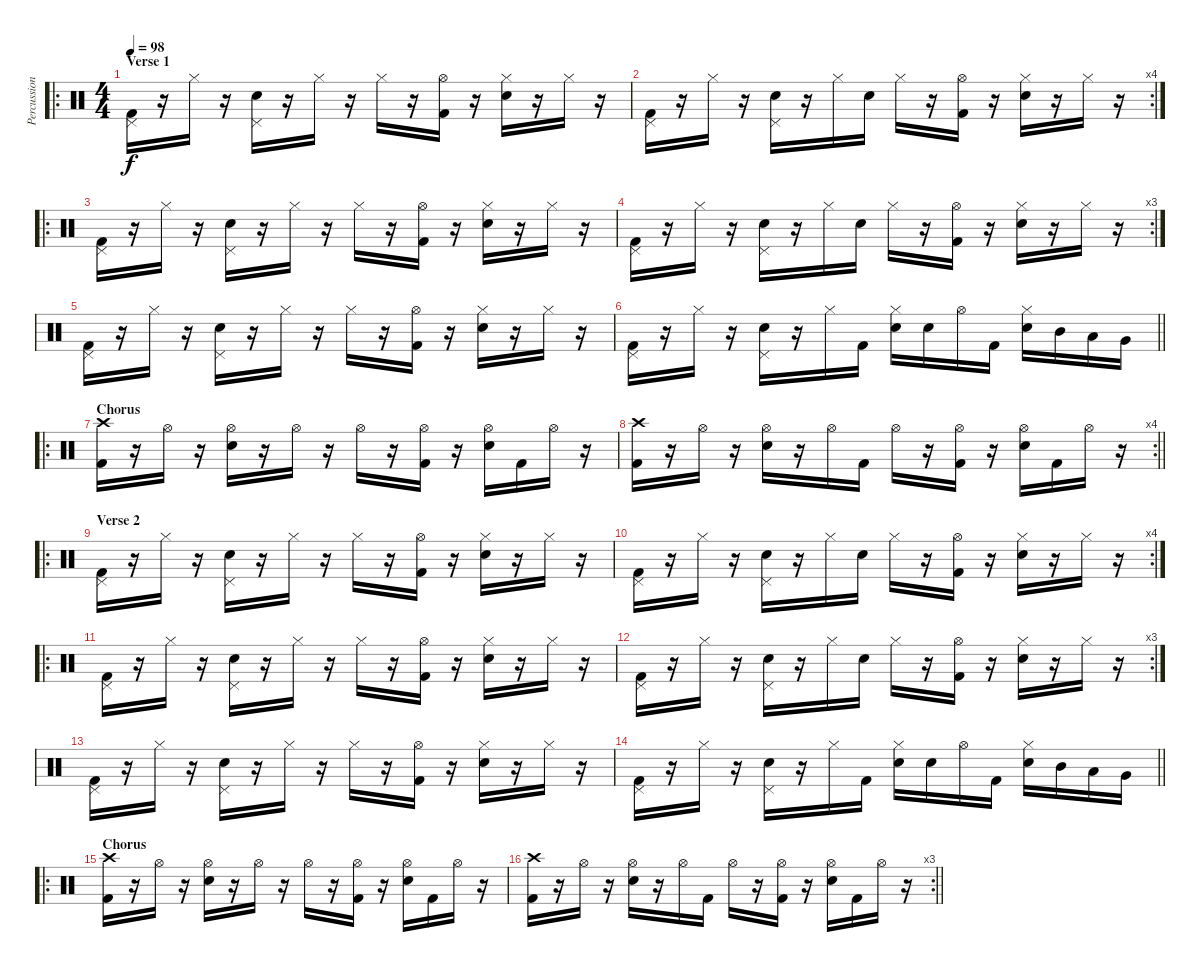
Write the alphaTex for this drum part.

\track ("Percussion" "Percussion") {instrument percussion}
\staff {score}
\articulation defaults
\ro
\ts (4 4)
\section ("" "Verse 1")
\tempo 98
\clef neutral
\ks c
("Pedal Hi-Hat (hit)" "Kick (hit) 2").16{dy f} r.16 "Hi-Hat (closed)".16 r.16 ("Pedal Hi-Hat (hit)" "Snare (hit) 2").16 r.16 "Hi-Hat (closed)".16 r.16 "Hi-Hat (closed)".16 r.16 ("Hi-Hat (open)" "Kick (hit) 2").16 r.16 ("Hi-Hat (closed)" "Snare (hit) 2").16 r.16 "Hi-Hat (closed)".16 r.16 |
\rc 4
("Pedal Hi-Hat (hit)" "Kick (hit) 2").16 r.16 "Hi-Hat (closed)".16 r.16 ("Pedal Hi-Hat (hit)" "Snare (hit) 2").16 r.16 "Hi-Hat (closed)".16 "Snare (hit) 2".16 "Hi-Hat (closed)".16 r.16 ("Hi-Hat (open)" "Kick (hit) 2").16 r.16 ("Hi-Hat (closed)" "Snare (hit) 2").16 r.16 "Hi-Hat (closed)".16 r.16 |
\ro
("Pedal Hi-Hat (hit)" "Kick (hit) 2").16 r.16 "Hi-Hat (closed)".16 r.16 ("Pedal Hi-Hat (hit)" "Snare (hit) 2").16 r.16 "Hi-Hat (closed)".16 r.16 "Hi-Hat (closed)".16 r.16 ("Hi-Hat (open)" "Kick (hit) 2").16 r.16 ("Hi-Hat (closed)" "Snare (hit) 2").16 r.16 "Hi-Hat (closed)".16 r.16 |
\rc 3
("Pedal Hi-Hat (hit)" "Kick (hit) 2").16 r.16 "Hi-Hat (closed)".16 r.16 ("Pedal Hi-Hat (hit)" "Snare (hit) 2").16 r.16 "Hi-Hat (closed)".16 "Snare (hit) 2".16 "Hi-Hat (closed)".16 r.16 ("Hi-Hat (open)" "Kick (hit) 2").16 r.16 ("Hi-Hat (closed)" "Snare (hit) 2").16 r.16 "Hi-Hat (closed)".16 r.16 |
("Pedal Hi-Hat (hit)" "Kick (hit) 2").16 r.16 "Hi-Hat (closed)".16 r.16 ("Pedal Hi-Hat (hit)" "Snare (hit) 2").16 r.16 "Hi-Hat (closed)".16 r.16 "Hi-Hat (closed)".16 r.16 ("Hi-Hat (open)" "Kick (hit) 2").16 r.16 ("Hi-Hat (closed)" "Snare (hit) 2").16 r.16 "Hi-Hat (closed)".16 r.16 |
\barLineRight lightlight
("Pedal Hi-Hat (hit)" "Kick (hit) 2").16 r.16 "Hi-Hat (closed)".16 r.16 ("Pedal Hi-Hat (hit)" "Snare (hit) 2").16 r.16 "Hi-Hat (closed)".16 "Kick (hit) 2".16 ("Hi-Hat (closed)" "Snare (hit) 2").16 "Snare (hit) 2".16 "Hi-Hat (open)".16 "Kick (hit) 2".16 ("Hi-Hat (closed)" "Snare (hit) 2").16 "Mid Tom (hit)".16 "Low Tom (hit)".16 "Very Low Tom (hit)".16 |
\ro
\section ("" "Chorus")
("Crash high (hit)" "Kick (hit) 2").16 r.16 "Hi-Hat (open)".16 r.16 ("Hi-Hat (open)" "Snare (hit) 2").16 r.16 "Hi-Hat (open)".16 r.16 "Hi-Hat (open)".16 r.16 ("Hi-Hat (open)" "Kick (hit) 2").16 r.16 ("Hi-Hat (open)" "Snare (hit) 2").16 "Kick (hit) 2".16 "Hi-Hat (open)".16 r.16 |
\rc 4
\barLineRight lightlight
("Crash high (hit)" "Kick (hit) 2").16 r.16 "Hi-Hat (open)".16 r.16 ("Hi-Hat (open)" "Snare (hit) 2").16 r.16 "Hi-Hat (open)".16 "Kick (hit) 2".16 "Hi-Hat (open)".16 r.16 ("Hi-Hat (open)" "Kick (hit) 2").16 r.16 ("Hi-Hat (open)" "Snare (hit) 2").16 "Kick (hit) 2".16 "Hi-Hat (open)".16 r.16 |
\ro
\section ("" "Verse 2")
("Pedal Hi-Hat (hit)" "Kick (hit) 2").16 r.16 "Hi-Hat (closed)".16 r.16 ("Pedal Hi-Hat (hit)" "Snare (hit) 2").16 r.16 "Hi-Hat (closed)".16 r.16 "Hi-Hat (closed)".16 r.16 ("Hi-Hat (open)" "Kick (hit) 2").16 r.16 ("Hi-Hat (closed)" "Snare (hit) 2").16 r.16 "Hi-Hat (closed)".16 r.16 |
\rc 4
("Pedal Hi-Hat (hit)" "Kick (hit) 2").16 r.16 "Hi-Hat (closed)".16 r.16 ("Pedal Hi-Hat (hit)" "Snare (hit) 2").16 r.16 "Hi-Hat (closed)".16 "Snare (hit) 2".16 "Hi-Hat (closed)".16 r.16 ("Hi-Hat (open)" "Kick (hit) 2").16 r.16 ("Hi-Hat (closed)" "Snare (hit) 2").16 r.16 "Hi-Hat (closed)".16 r.16 |
\ro
("Pedal Hi-Hat (hit)" "Kick (hit) 2").16 r.16 "Hi-Hat (closed)".16 r.16 ("Pedal Hi-Hat (hit)" "Snare (hit) 2").16 r.16 "Hi-Hat (closed)".16 r.16 "Hi-Hat (closed)".16 r.16 ("Hi-Hat (open)" "Kick (hit) 2").16 r.16 ("Hi-Hat (closed)" "Snare (hit) 2").16 r.16 "Hi-Hat (closed)".16 r.16 |
\rc 3
("Pedal Hi-Hat (hit)" "Kick (hit) 2").16 r.16 "Hi-Hat (closed)".16 r.16 ("Pedal Hi-Hat (hit)" "Snare (hit) 2").16 r.16 "Hi-Hat (closed)".16 "Snare (hit) 2".16 "Hi-Hat (closed)".16 r.16 ("Hi-Hat (open)" "Kick (hit) 2").16 r.16 ("Hi-Hat (closed)" "Snare (hit) 2").16 r.16 "Hi-Hat (closed)".16 r.16 |
("Pedal Hi-Hat (hit)" "Kick (hit) 2").16 r.16 "Hi-Hat (closed)".16 r.16 ("Pedal Hi-Hat (hit)" "Snare (hit) 2").16 r.16 "Hi-Hat (closed)".16 r.16 "Hi-Hat (closed)".16 r.16 ("Hi-Hat (open)" "Kick (hit) 2").16 r.16 ("Hi-Hat (closed)" "Snare (hit) 2").16 r.16 "Hi-Hat (closed)".16 r.16 |
\barLineRight lightlight
("Pedal Hi-Hat (hit)" "Kick (hit) 2").16 r.16 "Hi-Hat (closed)".16 r.16 ("Pedal Hi-Hat (hit)" "Snare (hit) 2").16 r.16 "Hi-Hat (closed)".16 "Kick (hit) 2".16 ("Hi-Hat (closed)" "Snare (hit) 2").16 "Snare (hit) 2".16 "Hi-Hat (open)".16 "Kick (hit) 2".16 ("Hi-Hat (closed)" "Snare (hit) 2").16 "Mid Tom (hit)".16 "Low Tom (hit)".16 "Very Low Tom (hit)".16 |
\ro
\section ("" "Chorus")
("Crash high (hit)" "Kick (hit) 2").16 r.16 "Hi-Hat (open)".16 r.16 ("Hi-Hat (open)" "Snare (hit) 2").16 r.16 "Hi-Hat (open)".16 r.16 "Hi-Hat (open)".16 r.16 ("Hi-Hat (open)" "Kick (hit) 2").16 r.16 ("Hi-Hat (open)" "Snare (hit) 2").16 "Kick (hit) 2".16 "Hi-Hat (open)".16 r.16 |
\rc 3
\barLineRight lightlight
("Crash high (hit)" "Kick (hit) 2").16 r.16 "Hi-Hat (open)".16 r.16 ("Hi-Hat (open)" "Snare (hit) 2").16 r.16 "Hi-Hat (open)".16 "Kick (hit) 2".16 "Hi-Hat (open)".16 r.16 ("Hi-Hat (open)" "Kick (hit) 2").16 r.16 ("Hi-Hat (open)" "Snare (hit) 2").16 "Kick (hit) 2".16 "Hi-Hat (open)".16 r.16
